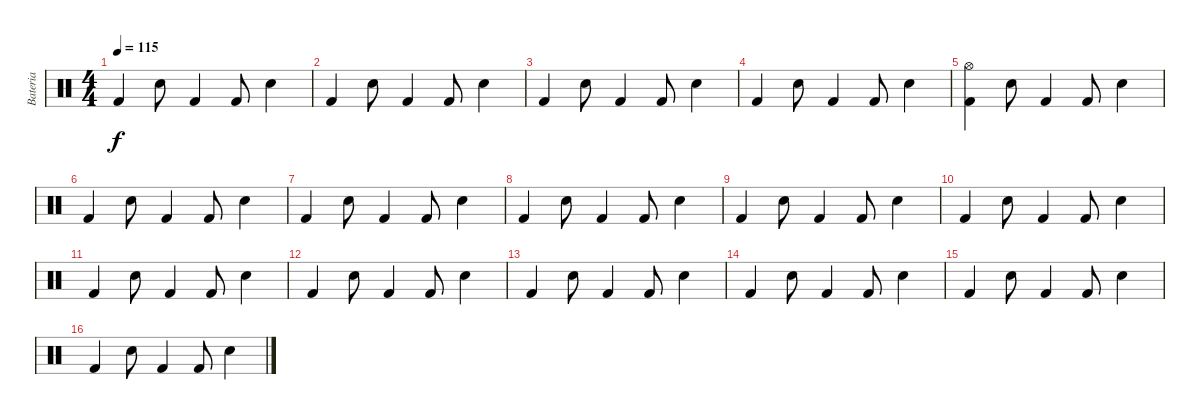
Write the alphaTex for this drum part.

\track ("Bateria" "Bateria") {instrument percussion}
\staff {score}
\articulation defaults
\ts (4 4)
\tempo 115
\clef neutral
\ks c "Kick (hit) 2".4{dy f} "Snare (hit) 2".8 "Kick (hit) 2".4 "Kick (hit) 2".8 "Snare (hit) 2".4
|
"Kick (hit) 2".4 "Snare (hit) 2".8 "Kick (hit) 2".4 "Kick (hit) 2".8 "Snare (hit) 2".4 |
"Kick (hit) 2".4 "Snare (hit) 2".8 "Kick (hit) 2".4 "Kick (hit) 2".8 "Snare (hit) 2".4 |
"Kick (hit) 2".4 "Snare (hit) 2".8 "Kick (hit) 2".4 "Kick (hit) 2".8 "Snare (hit) 2".4 |
("Kick (hit) 2" "Hi-Hat (open)").4 "Snare (hit) 2".8 "Kick (hit) 2".4 "Kick (hit) 2".8 "Snare (hit) 2".4 |
"Kick (hit) 2".4 "Snare (hit) 2".8 "Kick (hit) 2".4 "Kick (hit) 2".8 "Snare (hit) 2".4 |
"Kick (hit) 2".4 "Snare (hit) 2".8 "Kick (hit) 2".4 "Kick (hit) 2".8 "Snare (hit) 2".4 |
"Kick (hit) 2".4 "Snare (hit) 2".8 "Kick (hit) 2".4 "Kick (hit) 2".8 "Snare (hit) 2".4 |
"Kick (hit) 2".4 "Snare (hit) 2".8 "Kick (hit) 2".4 "Kick (hit) 2".8 "Snare (hit) 2".4 |
"Kick (hit) 2".4 "Snare (hit) 2".8 "Kick (hit) 2".4 "Kick (hit) 2".8 "Snare (hit) 2".4 |
"Kick (hit) 2".4 "Snare (hit) 2".8 "Kick (hit) 2".4 "Kick (hit) 2".8 "Snare (hit) 2".4 |
"Kick (hit) 2".4 "Snare (hit) 2".8 "Kick (hit) 2".4 "Kick (hit) 2".8 "Snare (hit) 2".4 |
"Kick (hit) 2".4 "Snare (hit) 2".8 "Kick (hit) 2".4 "Kick (hit) 2".8 "Snare (hit) 2".4 |
"Kick (hit) 2".4 "Snare (hit) 2".8 "Kick (hit) 2".4 "Kick (hit) 2".8 "Snare (hit) 2".4 |
"Kick (hit) 2".4 "Snare (hit) 2".8 "Kick (hit) 2".4 "Kick (hit) 2".8 "Snare (hit) 2".4 |
"Kick (hit) 2".4 "Snare (hit) 2".8 "Kick (hit) 2".4 "Kick (hit) 2".8 "Snare (hit) 2".4
